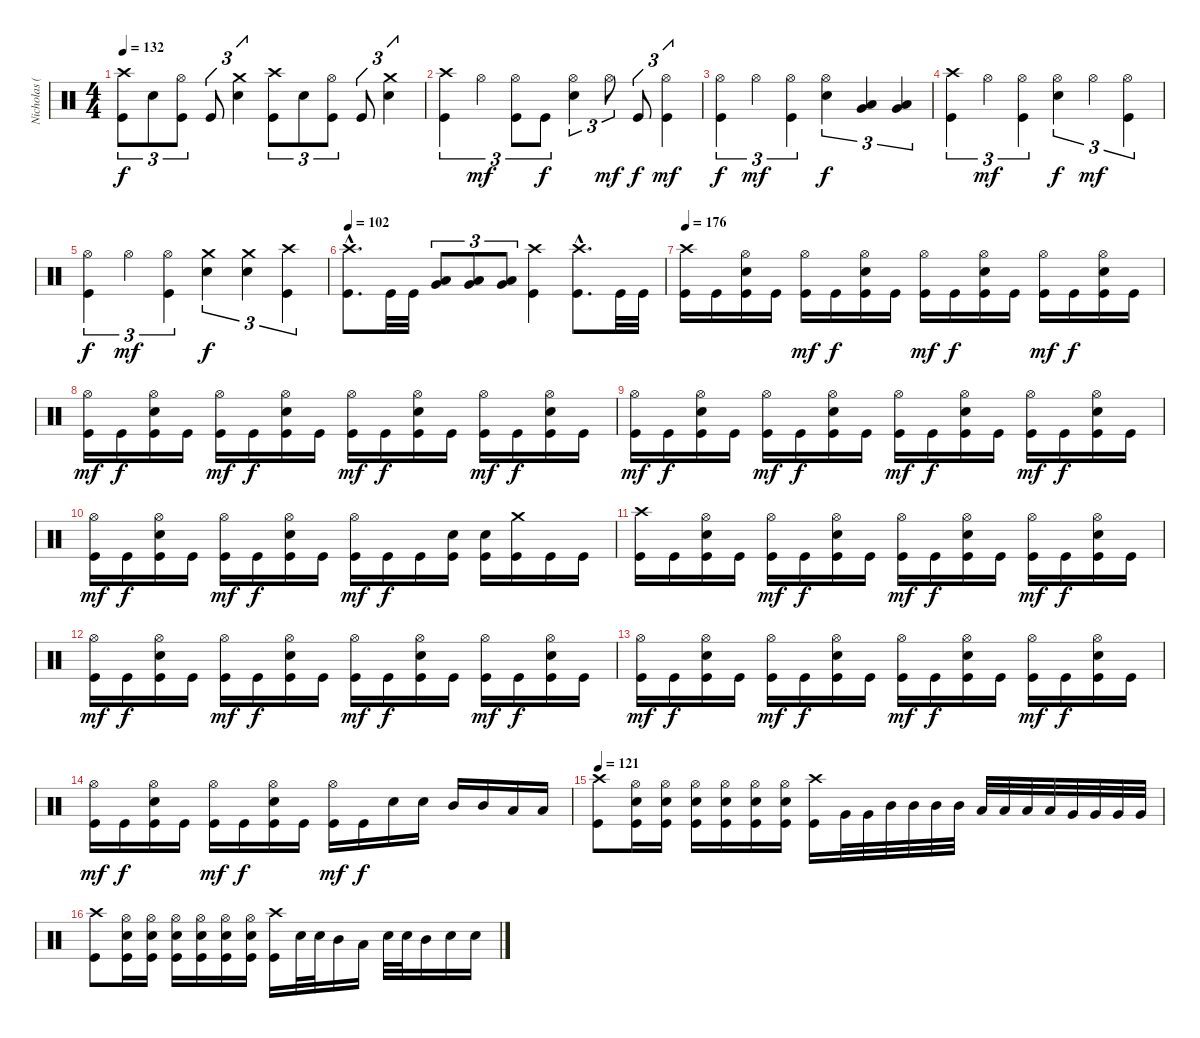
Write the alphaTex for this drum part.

\track ("Nicholas (Drums)" "Nicholas (") {instrument percussion}
\staff {score}
\articulation defaults
\ts (4 4)
\tempo 132
\clef neutral
\ks c
("Crash high (hit)" "Kick (hit)").8{tu (3 2) dy f} "Electric Snare (hit)".8{tu (3 2)} ("Hi-Hat (open)" "Kick (hit)").8{tu (3 2)} "Kick (hit)".8{tu (3 2)} ("Crash medium (hit)" "Electric Snare (hit)").4{tu (3 2)} ("Crash high (hit)" "Kick (hit)").8{tu (3 2)} "Electric Snare (hit)".8{tu (3 2)} ("Hi-Hat (open)" "Kick (hit)").8{tu (3 2)} "Kick (hit)".8{tu (3 2)} ("Crash medium (hit)" "Electric Snare (hit)").4{tu (3 2)} |
("Crash high (hit)" "Kick (hit)").4{tu (3 2)} "Hi-Hat (open)".4{tu (3 2) dy mf} ("Hi-Hat (open)" "Kick (hit)").8{tu (3 2)} "Kick (hit)".8{tu (3 2) dy f} ("Hi-Hat (open)" "Electric Snare (hit)").4{tu (3 2)} "Hi-Hat (open)".8{tu (3 2) dy mf} "Kick (hit)".8{tu (3 2) dy f} ("Hi-Hat (open)" "Kick (hit)").4{tu (3 2) dy mf} |
("Hi-Hat (open)" "Kick (hit)").4{tu (3 2) dy f} "Hi-Hat (open)".4{tu (3 2) dy mf} ("Hi-Hat (open)" "Kick (hit)").4{tu (3 2)} ("Hi-Hat (open)" "Electric Snare (hit)").4{tu (3 2) dy f} ("Low Tom (hit)" "Very Low Tom (hit)").4{tu (3 2) bu 60} ("Low Tom (hit)" "Very Low Tom (hit)").4{tu (3 2) bu 60} |
("Crash high (hit)" "Kick (hit)").4{tu (3 2)} "Hi-Hat (open)".4{tu (3 2) dy mf} ("Hi-Hat (open)" "Kick (hit)").4{tu (3 2)} ("Hi-Hat (open)" "Electric Snare (hit)").4{tu (3 2) dy f} "Hi-Hat (open)".4{tu (3 2) dy mf} ("Hi-Hat (open)" "Kick (hit)").4{tu (3 2)} |
("Hi-Hat (open)" "Kick (hit)").4{tu (3 2) dy f} "Hi-Hat (open)".4{tu (3 2) dy mf} ("Hi-Hat (open)" "Kick (hit)").4{tu (3 2)} ("Crash medium (hit)" "Electric Snare (hit)").4{tu (3 2) dy f} ("Crash medium (hit)" "Electric Snare (hit)").4{tu (3 2)} ("Crash high (hit)" "Kick (hit)").4{tu (3 2)} |
\tempo 102
("Crash high (hit)"{hac} "Kick (hit)"{hac}).8{d} "Kick (hit)".32 "Kick (hit)".32 ("Low Tom (hit)" "Very Low Tom (hit)").8{tu (3 2) bd 60} ("Low Tom (hit)" "Very Low Tom (hit)").8{tu (3 2) bd 60} ("Low Tom (hit)" "Very Low Tom (hit)").8{tu (3 2) bd 60} ("Crash high (hit)" "Kick (hit)").4 ("Crash high (hit)"{hac} "Kick (hit)"{hac}).8{d} "Kick (hit)".32 "Kick (hit)".32 |
\tempo 176
("Crash high (hit)" "Kick (hit)").16 "Kick (hit)".16 ("Hi-Hat (open)" "Electric Snare (hit)" "Kick (hit)").16 "Kick (hit)".16 ("Hi-Hat (open)" "Kick (hit)").16{dy mf} "Kick (hit)".16{dy f} ("Hi-Hat (open)" "Electric Snare (hit)" "Kick (hit)").16 "Kick (hit)".16 ("Hi-Hat (open)" "Kick (hit)").16{dy mf} "Kick (hit)".16{dy f} ("Hi-Hat (open)" "Electric Snare (hit)" "Kick (hit)").16 "Kick (hit)".16 ("Hi-Hat (open)" "Kick (hit)").16{dy mf} "Kick (hit)".16{dy f} ("Hi-Hat (open)" "Electric Snare (hit)" "Kick (hit)").16 "Kick (hit)".16 |
("Hi-Hat (open)" "Kick (hit)").16{dy mf} "Kick (hit)".16{dy f} ("Hi-Hat (open)" "Electric Snare (hit)" "Kick (hit)").16 "Kick (hit)".16 ("Hi-Hat (open)" "Kick (hit)").16{dy mf} "Kick (hit)".16{dy f} ("Hi-Hat (open)" "Electric Snare (hit)" "Kick (hit)").16 "Kick (hit)".16 ("Hi-Hat (open)" "Kick (hit)").16{dy mf} "Kick (hit)".16{dy f} ("Hi-Hat (open)" "Electric Snare (hit)" "Kick (hit)").16 "Kick (hit)".16 ("Hi-Hat (open)" "Kick (hit)").16{dy mf} "Kick (hit)".16{dy f} ("Hi-Hat (open)" "Electric Snare (hit)" "Kick (hit)").16 "Kick (hit)".16 |
("Hi-Hat (open)" "Kick (hit)").16{dy mf} "Kick (hit)".16{dy f} ("Hi-Hat (open)" "Electric Snare (hit)" "Kick (hit)").16 "Kick (hit)".16 ("Hi-Hat (open)" "Kick (hit)").16{dy mf} "Kick (hit)".16{dy f} ("Hi-Hat (open)" "Electric Snare (hit)" "Kick (hit)").16 "Kick (hit)".16 ("Hi-Hat (open)" "Kick (hit)").16{dy mf} "Kick (hit)".16{dy f} ("Hi-Hat (open)" "Electric Snare (hit)" "Kick (hit)").16 "Kick (hit)".16 ("Hi-Hat (open)" "Kick (hit)").16{dy mf} "Kick (hit)".16{dy f} ("Hi-Hat (open)" "Electric Snare (hit)" "Kick (hit)").16 "Kick (hit)".16 |
("Hi-Hat (open)" "Kick (hit)").16{dy mf} "Kick (hit)".16{dy f} ("Hi-Hat (open)" "Electric Snare (hit)" "Kick (hit)").16 "Kick (hit)".16 ("Hi-Hat (open)" "Kick (hit)").16{dy mf} "Kick (hit)".16{dy f} ("Hi-Hat (open)" "Electric Snare (hit)" "Kick (hit)").16 "Kick (hit)".16 ("Hi-Hat (open)" "Kick (hit)").16{dy mf} "Kick (hit)".16{dy f} "Kick (hit)".16 ("Electric Snare (hit)" "Kick (hit)").16 ("Electric Snare (hit)" "Kick (hit)").16 ("Crash medium (hit)" "Kick (hit)").16 "Kick (hit)".16 "Kick (hit)".16 |
("Crash high (hit)" "Kick (hit)").16 "Kick (hit)".16 ("Hi-Hat (open)" "Electric Snare (hit)" "Kick (hit)").16 "Kick (hit)".16 ("Hi-Hat (open)" "Kick (hit)").16{dy mf} "Kick (hit)".16{dy f} ("Hi-Hat (open)" "Electric Snare (hit)" "Kick (hit)").16 "Kick (hit)".16 ("Hi-Hat (open)" "Kick (hit)").16{dy mf} "Kick (hit)".16{dy f} ("Hi-Hat (open)" "Electric Snare (hit)" "Kick (hit)").16 "Kick (hit)".16 ("Hi-Hat (open)" "Kick (hit)").16{dy mf} "Kick (hit)".16{dy f} ("Hi-Hat (open)" "Electric Snare (hit)" "Kick (hit)").16 "Kick (hit)".16 |
("Hi-Hat (open)" "Kick (hit)").16{dy mf} "Kick (hit)".16{dy f} ("Hi-Hat (open)" "Electric Snare (hit)" "Kick (hit)").16 "Kick (hit)".16 ("Hi-Hat (open)" "Kick (hit)").16{dy mf} "Kick (hit)".16{dy f} ("Hi-Hat (open)" "Electric Snare (hit)" "Kick (hit)").16 "Kick (hit)".16 ("Hi-Hat (open)" "Kick (hit)").16{dy mf} "Kick (hit)".16{dy f} ("Hi-Hat (open)" "Electric Snare (hit)" "Kick (hit)").16 "Kick (hit)".16 ("Hi-Hat (open)" "Kick (hit)").16{dy mf} "Kick (hit)".16{dy f} ("Hi-Hat (open)" "Electric Snare (hit)" "Kick (hit)").16 "Kick (hit)".16 |
("Hi-Hat (open)" "Kick (hit)").16{dy mf} "Kick (hit)".16{dy f} ("Hi-Hat (open)" "Electric Snare (hit)" "Kick (hit)").16 "Kick (hit)".16 ("Hi-Hat (open)" "Kick (hit)").16{dy mf} "Kick (hit)".16{dy f} ("Hi-Hat (open)" "Electric Snare (hit)" "Kick (hit)").16 "Kick (hit)".16 ("Hi-Hat (open)" "Kick (hit)").16{dy mf} "Kick (hit)".16{dy f} ("Hi-Hat (open)" "Electric Snare (hit)" "Kick (hit)").16 "Kick (hit)".16 ("Hi-Hat (open)" "Kick (hit)").16{dy mf} "Kick (hit)".16{dy f} ("Hi-Hat (open)" "Electric Snare (hit)" "Kick (hit)").16 "Kick (hit)".16 |
("Hi-Hat (open)" "Kick (hit)").16{dy mf} "Kick (hit)".16{dy f} ("Hi-Hat (open)" "Electric Snare (hit)" "Kick (hit)").16 "Kick (hit)".16 ("Hi-Hat (open)" "Kick (hit)").16{dy mf} "Kick (hit)".16{dy f} ("Hi-Hat (open)" "Electric Snare (hit)" "Kick (hit)").16 "Kick (hit)".16 ("Hi-Hat (open)" "Kick (hit)").16{dy mf} "Kick (hit)".16{dy f} "Electric Snare (hit)".16 "Electric Snare (hit)".16 "Mid Tom (hit)".16 "Mid Tom (hit)".16 "Low Tom (hit)".16 "Low Tom (hit)".16 |
\tempo 121
("Crash high (hit)" "Kick (hit)").8 ("Hi-Hat (open)" "Electric Snare (hit)" "Kick (hit)").16 ("Hi-Hat (open)" "Electric Snare (hit)" "Kick (hit)").16 ("Hi-Hat (open)" "Electric Snare (hit)" "Kick (hit)").16 ("Hi-Hat (open)" "Electric Snare (hit)" "Kick (hit)").16 ("Hi-Hat (open)" "Electric Snare (hit)" "Kick (hit)").16 ("Hi-Hat (open)" "Electric Snare (hit)" "Kick (hit)").16 ("Crash high (hit)" "Kick (hit)").16 "Very Low Tom (hit)".32 "Very Low Tom (hit)".32 "Mid Tom (hit)".32 "Mid Tom (hit)".32 "Mid Tom (hit)".32 "Mid Tom (hit)".32 "Low Tom (hit)".32 "Low Tom (hit)".32 "Low Tom (hit)".32 "Low Tom (hit)".32 "Very Low Tom (hit)".32 "Very Low Tom (hit)".32 "Very Low Tom (hit)".32 "Very Low Tom (hit)".32 |
("Crash high (hit)" "Kick (hit)").8 ("Hi-Hat (open)" "Electric Snare (hit)" "Kick (hit)").16 ("Hi-Hat (open)" "Electric Snare (hit)" "Kick (hit)").16 ("Hi-Hat (open)" "Electric Snare (hit)" "Kick (hit)").16 ("Hi-Hat (open)" "Electric Snare (hit)" "Kick (hit)").16 ("Hi-Hat (open)" "Electric Snare (hit)" "Kick (hit)").16 ("Hi-Hat (open)" "Electric Snare (hit)" "Kick (hit)").16 ("Crash high (hit)" "Kick (hit)").16 "Electric Snare (hit)".32 "Electric Snare (hit)".32 "Mid Tom (hit)".16 "Low Tom (hit)".16 "Electric Snare (hit)".32 "Electric Snare (hit)".32 "Mid Tom (hit)".16 "Electric Snare (hit)".16 "Electric Snare (hit)".16
